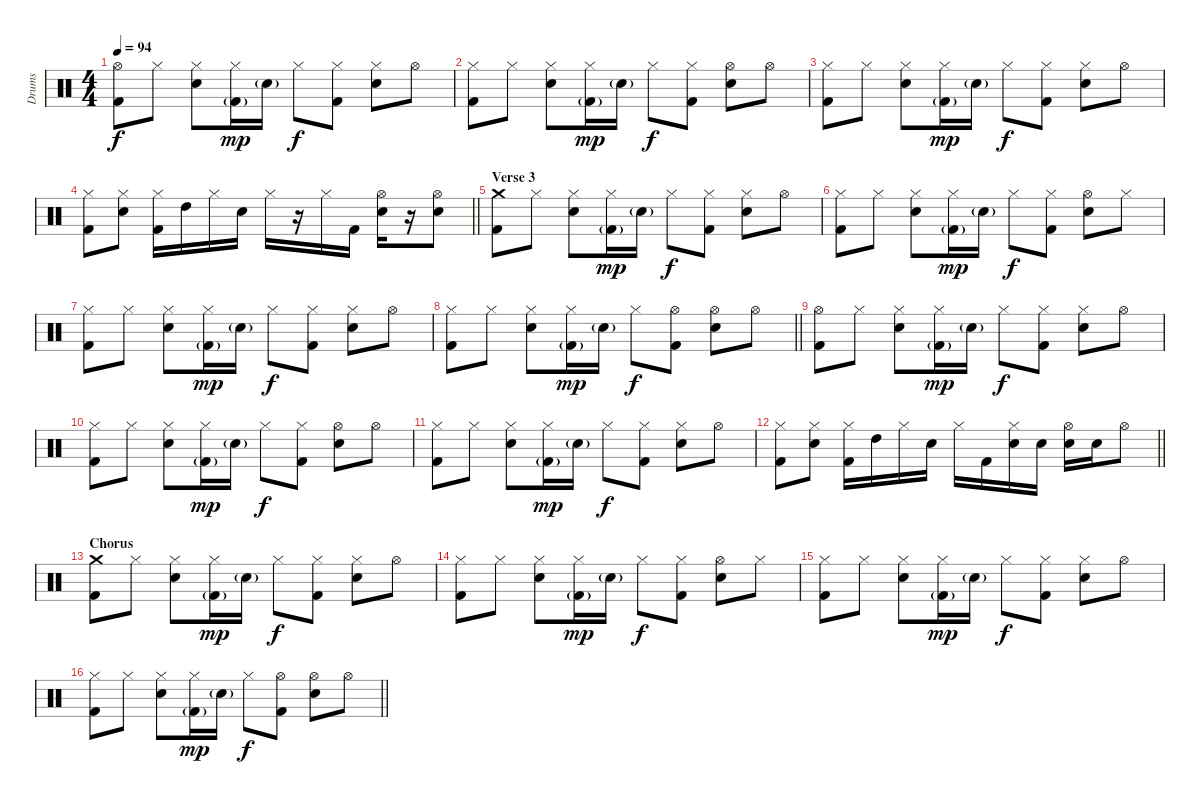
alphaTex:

\track ("Drums" "Drums") {instrument percussion}
\staff {score}
\articulation defaults
\ts (4 4)
\tempo 94
\clef neutral
\ks c
("Hi-Hat (open)" "Kick (hit) 2").8{dy f} "Hi-Hat (closed)".8 ("Hi-Hat (closed)" "Electric Snare (hit)").8 ("Hi-Hat (closed)" "Kick (hit) 2"{g}).16{dy mp} "Electric Snare (hit)"{g}.16 "Hi-Hat (closed)".8{dy f} ("Hi-Hat (closed)" "Kick (hit) 2").8 ("Hi-Hat (closed)" "Electric Snare (hit)").8 "Hi-Hat (open)".8 |
("Hi-Hat (closed)" "Kick (hit) 2").8 "Hi-Hat (closed)".8 ("Hi-Hat (closed)" "Electric Snare (hit)").8 ("Hi-Hat (closed)" "Kick (hit) 2"{g}).16{dy mp} "Electric Snare (hit)"{g}.16 "Hi-Hat (closed)".8{dy f} ("Hi-Hat (closed)" "Kick (hit) 2").8 ("Hi-Hat (open)" "Electric Snare (hit)").8 "Hi-Hat (open)".8 |
("Hi-Hat (closed)" "Kick (hit) 2").8 "Hi-Hat (closed)".8 ("Hi-Hat (closed)" "Electric Snare (hit)").8 ("Hi-Hat (closed)" "Kick (hit) 2"{g}).16{dy mp} "Electric Snare (hit)"{g}.16 "Hi-Hat (closed)".8{dy f} ("Hi-Hat (closed)" "Kick (hit) 2").8 ("Hi-Hat (closed)" "Electric Snare (hit)").8 "Hi-Hat (open)".8 |
\barLineRight lightlight
("Hi-Hat (closed)" "Kick (hit) 2").8 ("Hi-Hat (closed)" "Electric Snare (hit)").8 ("Hi-Hat (closed)" "Kick (hit) 2").16 "High Tom (hit)".16 "Hi-Hat (closed)".16 "Electric Snare (hit)".16 "Hi-Hat (closed)".16 r.16 "Hi-Hat (closed)".16 "Kick (hit) 2".16 ("Hi-Hat (open)" "Electric Snare (hit)").16 r.16 ("Hi-Hat (open)" "Electric Snare (hit)").8 |
\section ("" "Verse 3")
("Crash medium (hit)" "Kick (hit) 2").8 "Hi-Hat (closed)".8 ("Hi-Hat (closed)" "Electric Snare (hit)").8 ("Hi-Hat (closed)" "Kick (hit) 2"{g}).16{dy mp} "Electric Snare (hit)"{g}.16 "Hi-Hat (closed)".8{dy f} ("Hi-Hat (closed)" "Kick (hit) 2").8 ("Hi-Hat (closed)" "Electric Snare (hit)").8 "Hi-Hat (open)".8 |
("Hi-Hat (closed)" "Kick (hit) 2").8 "Hi-Hat (closed)".8 ("Hi-Hat (closed)" "Electric Snare (hit)").8 ("Hi-Hat (closed)" "Kick (hit) 2"{g}).16{dy mp} "Electric Snare (hit)"{g}.16 "Hi-Hat (closed)".8{dy f} ("Hi-Hat (closed)" "Kick (hit) 2").8 ("Hi-Hat (open)" "Electric Snare (hit)").8 "Hi-Hat (closed)".8 |
("Hi-Hat (closed)" "Kick (hit) 2").8 "Hi-Hat (closed)".8 ("Hi-Hat (closed)" "Electric Snare (hit)").8 ("Hi-Hat (closed)" "Kick (hit) 2"{g}).16{dy mp} "Electric Snare (hit)"{g}.16 "Hi-Hat (closed)".8{dy f} ("Hi-Hat (closed)" "Kick (hit) 2").8 ("Hi-Hat (closed)" "Electric Snare (hit)").8 "Hi-Hat (open)".8 |
\barLineRight lightlight
("Hi-Hat (closed)" "Kick (hit) 2").8 "Hi-Hat (closed)".8 ("Hi-Hat (closed)" "Electric Snare (hit)").8 ("Hi-Hat (closed)" "Kick (hit) 2"{g}).16{dy mp} "Electric Snare (hit)"{g}.16 "Hi-Hat (closed)".8{dy f} ("Hi-Hat (open)" "Kick (hit) 2").8 ("Hi-Hat (open)" "Electric Snare (hit)").8 "Hi-Hat (open)".8 |
("Hi-Hat (open)" "Kick (hit) 2").8 "Hi-Hat (closed)".8 ("Hi-Hat (closed)" "Electric Snare (hit)").8 ("Hi-Hat (closed)" "Kick (hit) 2"{g}).16{dy mp} "Electric Snare (hit)"{g}.16 "Hi-Hat (closed)".8{dy f} ("Hi-Hat (closed)" "Kick (hit) 2").8 ("Hi-Hat (closed)" "Electric Snare (hit)").8 "Hi-Hat (open)".8 |
("Hi-Hat (closed)" "Kick (hit) 2").8 "Hi-Hat (closed)".8 ("Hi-Hat (closed)" "Electric Snare (hit)").8 ("Hi-Hat (closed)" "Kick (hit) 2"{g}).16{dy mp} "Electric Snare (hit)"{g}.16 "Hi-Hat (closed)".8{dy f} ("Hi-Hat (closed)" "Kick (hit) 2").8 ("Hi-Hat (open)" "Electric Snare (hit)").8 "Hi-Hat (open)".8 |
("Hi-Hat (closed)" "Kick (hit) 2").8 "Hi-Hat (closed)".8 ("Hi-Hat (closed)" "Electric Snare (hit)").8 ("Hi-Hat (closed)" "Kick (hit) 2"{g}).16{dy mp} "Electric Snare (hit)"{g}.16 "Hi-Hat (closed)".8{dy f} ("Hi-Hat (closed)" "Kick (hit) 2").8 ("Hi-Hat (closed)" "Electric Snare (hit)").8 "Hi-Hat (open)".8 |
\barLineRight lightlight
("Hi-Hat (closed)" "Kick (hit) 2").8 ("Hi-Hat (closed)" "Electric Snare (hit)").8 ("Hi-Hat (closed)" "Kick (hit) 2").16 "High Tom (hit)".16 "Hi-Hat (closed)".16 "Electric Snare (hit)".16 "Hi-Hat (closed)".16 "Kick (hit) 2".16 ("Hi-Hat (closed)" "Electric Snare (hit)").16 "Electric Snare (hit)".16 ("Hi-Hat (open)" "Electric Snare (hit)").16 "Electric Snare (hit)".16 "Hi-Hat (open)".8 |
\section ("" "Chorus")
("Crash medium (hit)" "Kick (hit) 2").8 "Hi-Hat (closed)".8 ("Hi-Hat (closed)" "Electric Snare (hit)").8 ("Hi-Hat (closed)" "Kick (hit) 2"{g}).16{dy mp} "Electric Snare (hit)"{g}.16 "Hi-Hat (closed)".8{dy f} ("Hi-Hat (closed)" "Kick (hit) 2").8 ("Hi-Hat (closed)" "Electric Snare (hit)").8 "Hi-Hat (open)".8 |
("Hi-Hat (closed)" "Kick (hit) 2").8 "Hi-Hat (closed)".8 ("Hi-Hat (closed)" "Electric Snare (hit)").8 ("Hi-Hat (closed)" "Kick (hit) 2"{g}).16{dy mp} "Electric Snare (hit)"{g}.16 "Hi-Hat (closed)".8{dy f} ("Hi-Hat (closed)" "Kick (hit) 2").8 ("Hi-Hat (open)" "Electric Snare (hit)").8 "Hi-Hat (closed)".8 |
("Hi-Hat (closed)" "Kick (hit) 2").8 "Hi-Hat (closed)".8 ("Hi-Hat (closed)" "Electric Snare (hit)").8 ("Hi-Hat (closed)" "Kick (hit) 2"{g}).16{dy mp} "Electric Snare (hit)"{g}.16 "Hi-Hat (closed)".8{dy f} ("Hi-Hat (closed)" "Kick (hit) 2").8 ("Hi-Hat (closed)" "Electric Snare (hit)").8 "Hi-Hat (open)".8 |
\barLineRight lightlight
("Hi-Hat (closed)" "Kick (hit) 2").8 "Hi-Hat (closed)".8 ("Hi-Hat (closed)" "Electric Snare (hit)").8 ("Hi-Hat (closed)" "Kick (hit) 2"{g}).16{dy mp} "Electric Snare (hit)"{g}.16 "Hi-Hat (closed)".8{dy f} ("Hi-Hat (open)" "Kick (hit) 2").8 ("Hi-Hat (open)" "Electric Snare (hit)").8 "Hi-Hat (open)".8
